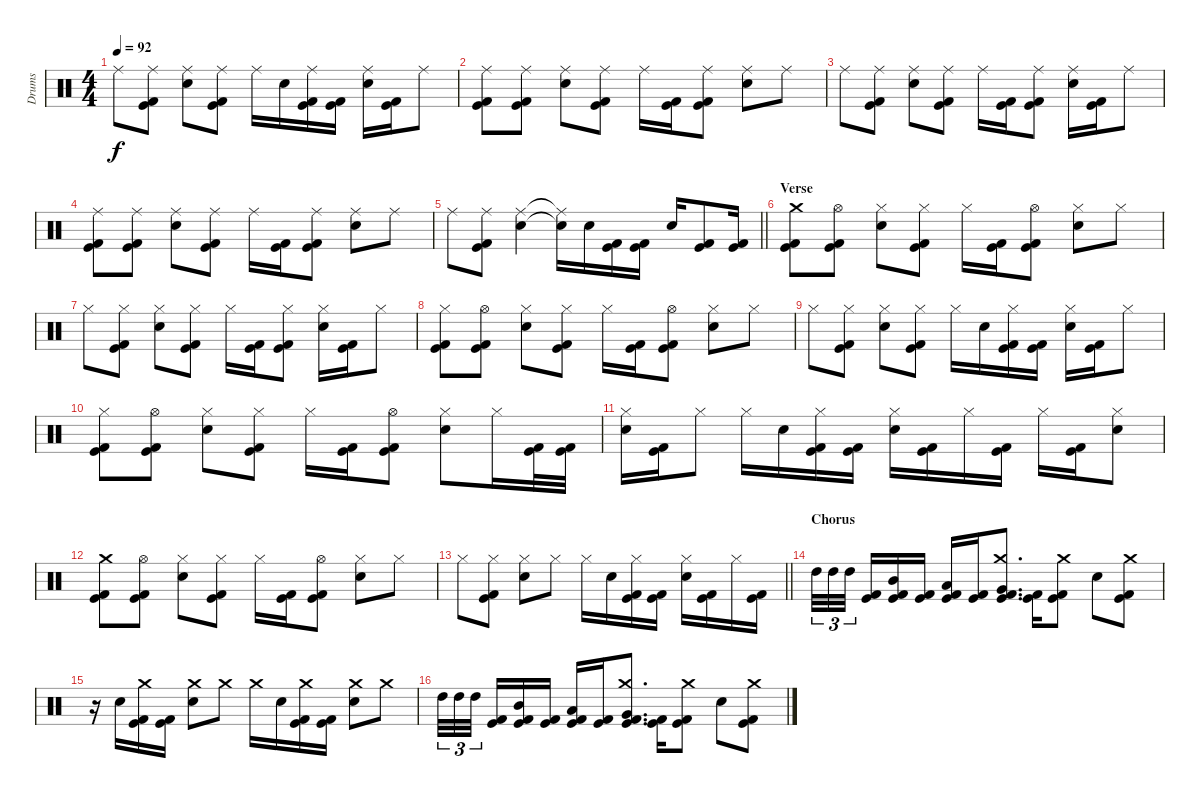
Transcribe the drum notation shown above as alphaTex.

\track ("Drums" "Drums") {instrument percussion}
\staff {score}
\articulation defaults
\ts (4 4)
\tempo 92
\clef neutral
\ks c "Ride (middle)".8{dy f}
("Ride (middle)" "Kick (hit)" "Kick (hit) 2").8 ("Ride (middle)" "Electric Snare (hit)").8 ("Ride (middle)" "Kick (hit)" "Kick (hit) 2").8 "Ride (middle)".16 "Electric Snare (hit)".16 ("Ride (middle)" "Kick (hit)" "Kick (hit) 2").16 ("Kick (hit)" "Kick (hit) 2").16 ("Ride (middle)" "Electric Snare (hit)").16 ("Kick (hit)" "Kick (hit) 2").16 "Ride (middle)".8 |
("Ride (middle)" "Kick (hit)" "Kick (hit) 2").8 ("Ride (middle)" "Kick (hit)" "Kick (hit) 2").8 ("Ride (middle)" "Electric Snare (hit)").8 ("Ride (middle)" "Kick (hit)" "Kick (hit) 2").8 "Ride (middle)".16 ("Kick (hit)" "Kick (hit) 2").16 ("Ride (middle)" "Kick (hit)" "Kick (hit) 2").8 ("Ride (middle)" "Electric Snare (hit)").8 "Ride (middle)".8 |
"Ride (middle)".8 ("Ride (middle)" "Kick (hit)" "Kick (hit) 2").8 ("Ride (middle)" "Electric Snare (hit)").8 ("Ride (middle)" "Kick (hit)" "Kick (hit) 2").8 "Ride (middle)".16 ("Kick (hit)" "Kick (hit) 2").16 ("Ride (middle)" "Kick (hit)" "Kick (hit) 2").8 ("Ride (middle)" "Electric Snare (hit)").16 ("Kick (hit)" "Kick (hit) 2").16 "Ride (middle)".8 |
("Ride (middle)" "Kick (hit)" "Kick (hit) 2").8 ("Ride (middle)" "Kick (hit)" "Kick (hit) 2").8 ("Ride (middle)" "Electric Snare (hit)").8 ("Ride (middle)" "Kick (hit)" "Kick (hit) 2").8 "Ride (middle)".16 ("Kick (hit)" "Kick (hit) 2").16 ("Ride (middle)" "Kick (hit)" "Kick (hit) 2").8 ("Ride (middle)" "Electric Snare (hit)").8 "Ride (middle)".8 |
\barLineRight lightlight "Ride (middle)".8
("Ride (middle)" "Kick (hit)" "Kick (hit) 2").8 ("Ride (middle)" "Electric Snare (hit)").4 ("Ride (middle)"{t} "Electric Snare (hit)"{t}).16 "Electric Snare (hit)".16 ("Kick (hit)" "Kick (hit) 2").16 ("Kick (hit)" "Kick (hit) 2").16 "Electric Snare (hit)".16 ("Kick (hit)" "Kick (hit) 2").8 ("Kick (hit)" "Kick (hit) 2").16 |
\section ("" "Verse")
("Crash medium (hit)" "Kick (hit)" "Kick (hit) 2").8 ("Hi-Hat (open)" "Kick (hit)" "Kick (hit) 2").8 ("Hi-Hat (closed)" "Electric Snare (hit)").8 ("Hi-Hat (closed)" "Kick (hit)" "Kick (hit) 2").8 "Hi-Hat (closed)".16 ("Kick (hit)" "Kick (hit) 2").16 ("Hi-Hat (open)" "Kick (hit)" "Kick (hit) 2").8 ("Hi-Hat (closed)" "Electric Snare (hit)").8 "Hi-Hat (closed)".8 |
"Hi-Hat (closed)".8 ("Hi-Hat (closed)" "Kick (hit)" "Kick (hit) 2").8 ("Hi-Hat (closed)" "Electric Snare (hit)").8 ("Hi-Hat (closed)" "Kick (hit)" "Kick (hit) 2").8 "Hi-Hat (closed)".16 ("Kick (hit)" "Kick (hit) 2").16 ("Hi-Hat (closed)" "Kick (hit)" "Kick (hit) 2").8 ("Hi-Hat (closed)" "Electric Snare (hit)").16 ("Kick (hit)" "Kick (hit) 2").16 "Hi-Hat (closed)".8 |
("Hi-Hat (closed)" "Kick (hit)" "Kick (hit) 2").8 ("Hi-Hat (open)" "Kick (hit)" "Kick (hit) 2").8 ("Hi-Hat (closed)" "Electric Snare (hit)").8 ("Hi-Hat (closed)" "Kick (hit)" "Kick (hit) 2").8 "Hi-Hat (closed)".16 ("Kick (hit)" "Kick (hit) 2").16 ("Hi-Hat (open)" "Kick (hit)" "Kick (hit) 2").8 ("Hi-Hat (closed)" "Electric Snare (hit)").8 "Hi-Hat (closed)".8 |
"Hi-Hat (closed)".8 ("Hi-Hat (closed)" "Kick (hit)" "Kick (hit) 2").8 ("Hi-Hat (closed)" "Electric Snare (hit)").8 ("Hi-Hat (closed)" "Kick (hit)" "Kick (hit) 2").8 "Hi-Hat (closed)".16 "Electric Snare (hit)".16 ("Hi-Hat (closed)" "Kick (hit)" "Kick (hit) 2").16 ("Kick (hit)" "Kick (hit) 2").16 ("Hi-Hat (closed)" "Electric Snare (hit)").16 ("Kick (hit)" "Kick (hit) 2").16 "Hi-Hat (closed)".8 |
("Hi-Hat (closed)" "Kick (hit)" "Kick (hit) 2").8 ("Hi-Hat (open)" "Kick (hit)" "Kick (hit) 2").8 ("Hi-Hat (closed)" "Electric Snare (hit)").8 ("Hi-Hat (closed)" "Kick (hit)" "Kick (hit) 2").8 "Hi-Hat (closed)".16 ("Kick (hit)" "Kick (hit) 2").16 ("Hi-Hat (open)" "Kick (hit)" "Kick (hit) 2").8 ("Hi-Hat (closed)" "Electric Snare (hit)").8 "Hi-Hat (closed)".16 ("Kick (hit)" "Kick (hit) 2").32 ("Kick (hit)" "Kick (hit) 2").32 |
("Hi-Hat (closed)" "Electric Snare (hit)").16 ("Kick (hit)" "Kick (hit) 2").16 "Hi-Hat (closed)".8 "Hi-Hat (closed)".16 "Electric Snare (hit)".16 ("Hi-Hat (closed)" "Kick (hit)" "Kick (hit) 2").16 ("Kick (hit)" "Kick (hit) 2").16 ("Hi-Hat (closed)" "Electric Snare (hit)").16 ("Kick (hit)" "Kick (hit) 2").16 "Hi-Hat (closed)".16 ("Kick (hit)" "Kick (hit) 2").16 "Hi-Hat (closed)".16 ("Kick (hit)" "Kick (hit) 2").16 ("Hi-Hat (closed)" "Electric Snare (hit)").8 |
("Crash medium (hit)" "Kick (hit)" "Kick (hit) 2").8 ("Hi-Hat (open)" "Kick (hit)" "Kick (hit) 2").8 ("Hi-Hat (closed)" "Electric Snare (hit)").8 ("Hi-Hat (closed)" "Kick (hit)" "Kick (hit) 2").8 "Hi-Hat (closed)".16 ("Kick (hit)" "Kick (hit) 2").16 ("Hi-Hat (open)" "Kick (hit)" "Kick (hit) 2").8 ("Hi-Hat (closed)" "Electric Snare (hit)").8 "Hi-Hat (closed)".8 |
\barLineRight lightlight "Hi-Hat (closed)".8
("Hi-Hat (closed)" "Kick (hit)" "Kick (hit) 2").8 ("Hi-Hat (closed)" "Electric Snare (hit)").8 "Hi-Hat (closed)".8 "Hi-Hat (closed)".16 "Electric Snare (hit)".16 ("Hi-Hat (closed)" "Kick (hit)" "Kick (hit) 2").16 ("Kick (hit)" "Kick (hit) 2").16 ("Hi-Hat (closed)" "Electric Snare (hit)").16 ("Kick (hit)" "Kick (hit) 2").16 "Hi-Hat (closed)".16 ("Kick (hit)" "Kick (hit) 2").16 |
\section ("" "Chorus")
"High Tom (hit)".32{tu (3 2)} "High Tom (hit)".32{tu (3 2)} "High Tom (hit)".32{tu (3 2) beam splitsecondary} ("Kick (hit)" "Kick (hit) 2").16 ("Mid Tom (hit)" "Kick (hit)" "Kick (hit) 2").16 ("Kick (hit)" "Kick (hit) 2").16 ("Low Tom (hit)" "Kick (hit)" "Kick (hit) 2").16 ("Kick (hit)" "Kick (hit) 2").16 ("Crash medium (hit)" "Very Low Tom (hit)" "Kick (hit)" "Kick (hit) 2").8{d} ("Kick (hit)" "Kick (hit) 2").16 ("Crash medium (hit)" "Kick (hit)" "Kick (hit) 2").8 "Electric Snare (hit)".8 ("Crash medium (hit)" "Kick (hit)" "Kick (hit) 2").8 |
r.16 "Electric Snare (hit)".16 ("Crash medium (hit)" "Kick (hit)" "Kick (hit) 2").16 ("Kick (hit)" "Kick (hit) 2").16 ("Crash medium (hit)" "Electric Snare (hit)").8 "Crash medium (hit)".8 "Crash medium (hit)".16 "Electric Snare (hit)".16 ("Crash medium (hit)" "Kick (hit)" "Kick (hit) 2").16 ("Kick (hit)" "Kick (hit) 2").16 ("Crash medium (hit)" "Electric Snare (hit)").8 "Crash medium (hit)".8 |
"High Tom (hit)".32{tu (3 2)} "High Tom (hit)".32{tu (3 2)} "High Tom (hit)".32{tu (3 2) beam splitsecondary} ("Kick (hit)" "Kick (hit) 2").16 ("Mid Tom (hit)" "Kick (hit)" "Kick (hit) 2").16 ("Kick (hit)" "Kick (hit) 2").16 ("Low Tom (hit)" "Kick (hit)" "Kick (hit) 2").16 ("Kick (hit)" "Kick (hit) 2").16 ("Crash medium (hit)" "Very Low Tom (hit)" "Kick (hit)" "Kick (hit) 2").8{d} ("Kick (hit)" "Kick (hit) 2").16 ("Crash medium (hit)" "Kick (hit)" "Kick (hit) 2").8 "Electric Snare (hit)".8 ("Crash medium (hit)" "Kick (hit)" "Kick (hit) 2").8
